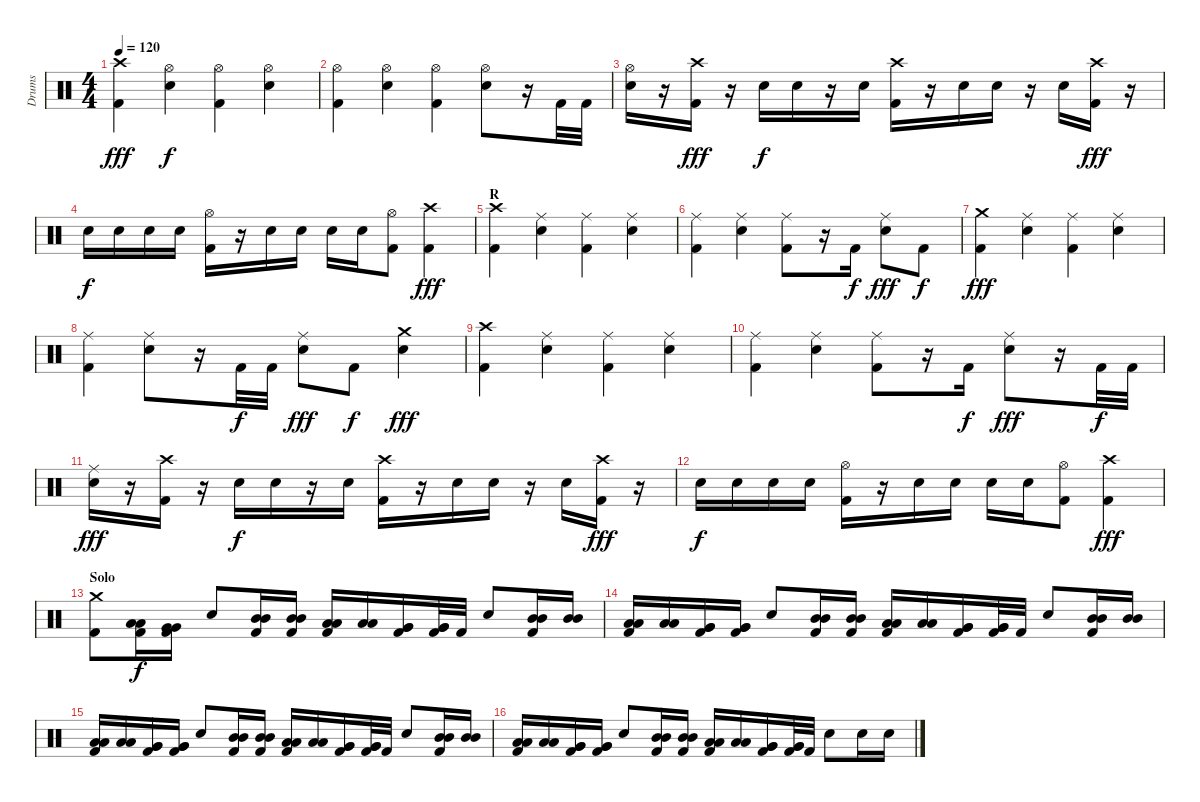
\track ("Drums" "Drums") {instrument percussion}
\staff {score}
\articulation defaults
\ts (4 4)
\tempo 120
\clef neutral
\ks c
("Kick (hit) 2" "Crash high (hit)").4{dy fff} ("Electric Snare (hit)" "Hi-Hat (open)").4{dy f} ("Kick (hit) 2" "Hi-Hat (open)").4 ("Electric Snare (hit)" "Hi-Hat (open)").4 |
("Kick (hit) 2" "Hi-Hat (open)").4 ("Electric Snare (hit)" "Hi-Hat (open)").4 ("Kick (hit) 2" "Hi-Hat (open)").4 ("Electric Snare (hit)" "Hi-Hat (open)").8 r.16 "Kick (hit) 2".32 "Kick (hit) 2".32 |
("Electric Snare (hit)" "Hi-Hat (open)").16 r.16 ("Kick (hit) 2" "Crash high (hit)").16{dy fff} r.16 "Electric Snare (hit)".16{dy f} "Electric Snare (hit)".16 r.16 "Electric Snare (hit)".16 ("Kick (hit) 2" "Crash high (hit)").16 r.16 "Electric Snare (hit)".16 "Electric Snare (hit)".16 r.16 "Electric Snare (hit)".16 ("Kick (hit) 2" "Crash high (hit)").16{dy fff} r.16 |
"Electric Snare (hit)".16{dy f} "Electric Snare (hit)".16 "Electric Snare (hit)".16 "Electric Snare (hit)".16 ("Kick (hit) 2" "Hi-Hat (open)").16 r.16 "Electric Snare (hit)".16 "Electric Snare (hit)".16 "Electric Snare (hit)".16 "Electric Snare (hit)".16 ("Kick (hit) 2" "Hi-Hat (open)").8 ("Kick (hit) 2" "Crash high (hit)").4{dy fff} |
\section ("" "R")
("Kick (hit) 2" "Crash high (hit)").4 ("Electric Snare (hit)" "Ride (middle)").4 ("Kick (hit) 2" "Ride (middle)").4 ("Electric Snare (hit)" "Ride (middle)").4 |
("Kick (hit) 2" "Ride (middle)").4 ("Electric Snare (hit)" "Ride (middle)").4 ("Kick (hit) 2" "Ride (middle)").8 r.16 "Kick (hit) 2".16{dy f} ("Electric Snare (hit)" "Ride (middle)").8{dy fff} "Kick (hit) 2".8{dy f} |
("Kick (hit) 2" "Crash medium (hit)").4{dy fff} ("Electric Snare (hit)" "Ride (middle)").4 ("Kick (hit) 2" "Ride (middle)").4 ("Electric Snare (hit)" "Ride (middle)").4 |
("Kick (hit) 2" "Ride (middle)").4 ("Electric Snare (hit)" "Ride (middle)").8 r.16 "Kick (hit) 2".32{dy f} "Kick (hit) 2".32 ("Electric Snare (hit)" "Ride (middle)").8{dy fff} "Kick (hit) 2".8{dy f} ("Electric Snare (hit)" "Crash medium (hit)").4{dy fff} |
("Kick (hit) 2" "Crash high (hit)").4 ("Electric Snare (hit)" "Ride (middle)").4 ("Kick (hit) 2" "Ride (middle)").4 ("Electric Snare (hit)" "Ride (middle)").4 |
("Kick (hit) 2" "Ride (middle)").4 ("Electric Snare (hit)" "Ride (middle)").4 ("Kick (hit) 2" "Ride (middle)").8 r.16 "Kick (hit) 2".16{dy f} ("Electric Snare (hit)" "Ride (middle)").8{dy fff} r.16 "Kick (hit) 2".32{dy f} "Kick (hit) 2".32 |
("Electric Snare (hit)" "Ride (middle)").16{dy fff} r.16 ("Kick (hit) 2" "Crash high (hit)").16 r.16 "Electric Snare (hit)".16{dy f} "Electric Snare (hit)".16 r.16 "Electric Snare (hit)".16 ("Kick (hit) 2" "Crash high (hit)").16 r.16 "Electric Snare (hit)".16 "Electric Snare (hit)".16 r.16 "Electric Snare (hit)".16 ("Kick (hit) 2" "Crash high (hit)").16{dy fff} r.16 |
"Electric Snare (hit)".16{dy f} "Electric Snare (hit)".16 "Electric Snare (hit)".16 "Electric Snare (hit)".16 ("Kick (hit) 2" "Hi-Hat (open)").16 r.16 "Electric Snare (hit)".16 "Electric Snare (hit)".16 "Electric Snare (hit)".16 "Electric Snare (hit)".16 ("Kick (hit) 2" "Hi-Hat (open)").8 ("Kick (hit) 2" "Crash high (hit)").4{dy fff} |
\section ("" "Solo")
("Kick (hit) 2" "Crash medium (hit)").8 ("Kick (hit) 2" "Low Tom (hit)" "Low Tom (hit)").16{dy f} ("Kick (hit) 2" "Very Low Tom (hit)" "Very Low Tom (hit)").16 "Electric Snare (hit)".8 ("Kick (hit) 2" "Mid Tom (hit)" "Mid Tom (hit)").16 ("Kick (hit) 2" "Mid Tom (hit)" "Mid Tom (hit)").16 ("Kick (hit) 2" "Low Tom (hit)" "Low Tom (hit)").16 ("Low Tom (hit)" "Low Tom (hit)").16 ("Kick (hit) 2" "Very Low Tom (hit)" "Very Low Tom (hit)").16 ("Kick (hit) 2" "Very Low Tom (hit)" "Very Low Tom (hit)").32 "Kick (hit) 2".32 "Electric Snare (hit)".8 ("Kick (hit) 2" "Mid Tom (hit)" "Mid Tom (hit)").16 ("Mid Tom (hit)" "Mid Tom (hit)").16 |
("Kick (hit) 2" "Low Tom (hit)" "Low Tom (hit)").16 ("Low Tom (hit)" "Low Tom (hit)").16 ("Kick (hit) 2" "Very Low Tom (hit)" "Very Low Tom (hit)").16 ("Kick (hit) 2" "Very Low Tom (hit)" "Very Low Tom (hit)").16 "Electric Snare (hit)".8 ("Kick (hit) 2" "Mid Tom (hit)" "Mid Tom (hit)").16 ("Kick (hit) 2" "Mid Tom (hit)" "Mid Tom (hit)").16 ("Kick (hit) 2" "Low Tom (hit)" "Low Tom (hit)").16 ("Low Tom (hit)" "Low Tom (hit)").16 ("Kick (hit) 2" "Very Low Tom (hit)" "Very Low Tom (hit)").16 ("Kick (hit) 2" "Very Low Tom (hit)" "Very Low Tom (hit)").32 "Kick (hit) 2".32 "Electric Snare (hit)".8 ("Kick (hit) 2" "Mid Tom (hit)" "Mid Tom (hit)").16 ("Mid Tom (hit)" "Mid Tom (hit)").16 |
("Kick (hit) 2" "Low Tom (hit)" "Low Tom (hit)").16 ("Low Tom (hit)" "Low Tom (hit)").16 ("Kick (hit) 2" "Very Low Tom (hit)" "Very Low Tom (hit)").16 ("Kick (hit) 2" "Very Low Tom (hit)" "Very Low Tom (hit)").16 "Electric Snare (hit)".8 ("Kick (hit) 2" "Mid Tom (hit)" "Mid Tom (hit)").16 ("Kick (hit) 2" "Mid Tom (hit)" "Mid Tom (hit)").16 ("Kick (hit) 2" "Low Tom (hit)" "Low Tom (hit)").16 ("Low Tom (hit)" "Low Tom (hit)").16 ("Kick (hit) 2" "Very Low Tom (hit)" "Very Low Tom (hit)").16 ("Kick (hit) 2" "Very Low Tom (hit)" "Very Low Tom (hit)").32 "Kick (hit) 2".32 "Electric Snare (hit)".8 ("Kick (hit) 2" "Mid Tom (hit)" "Mid Tom (hit)").16 ("Mid Tom (hit)" "Mid Tom (hit)").16 |
("Kick (hit) 2" "Low Tom (hit)" "Low Tom (hit)").16 ("Low Tom (hit)" "Low Tom (hit)").16 ("Kick (hit) 2" "Very Low Tom (hit)" "Very Low Tom (hit)").16 ("Kick (hit) 2" "Very Low Tom (hit)" "Very Low Tom (hit)").16 "Electric Snare (hit)".8 ("Kick (hit) 2" "Mid Tom (hit)" "Mid Tom (hit)").16 ("Kick (hit) 2" "Mid Tom (hit)" "Mid Tom (hit)").16 ("Kick (hit) 2" "Low Tom (hit)" "Low Tom (hit)").16 ("Low Tom (hit)" "Low Tom (hit)").16 ("Kick (hit) 2" "Very Low Tom (hit)" "Very Low Tom (hit)").16 ("Kick (hit) 2" "Very Low Tom (hit)" "Very Low Tom (hit)").32 "Kick (hit) 2".32 "Electric Snare (hit)".8 "Electric Snare (hit)".16 "Electric Snare (hit)".16
